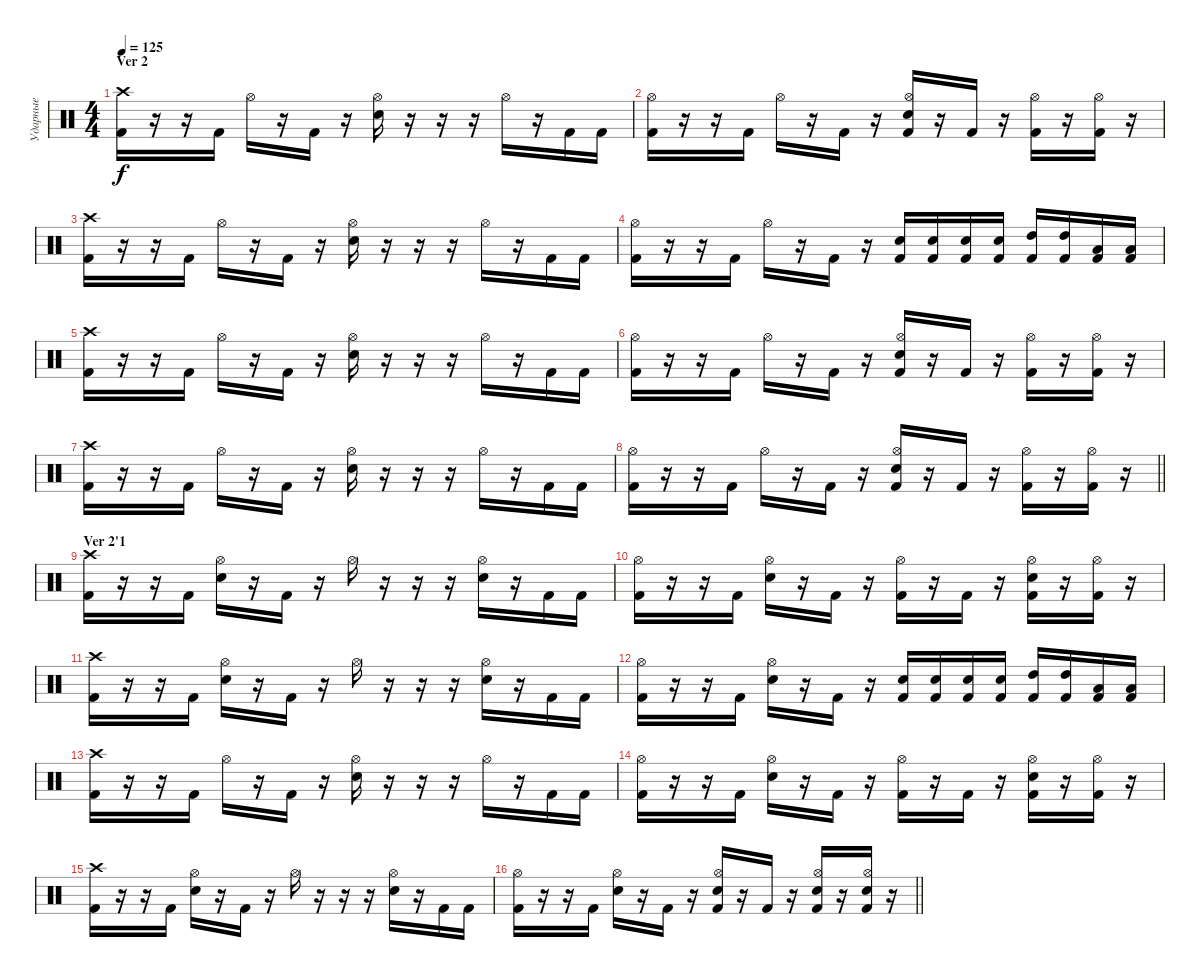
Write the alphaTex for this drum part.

\track ("Ударные" "Ударные") {instrument percussion}
\staff {score}
\articulation defaults
\ts (4 4)
\section ("" "Ver 2")
\tempo 125
\clef neutral
\ks c
("Crash high (hit)" "Kick (hit) 2").16{dy f} r.16 r.16 "Kick (hit) 2".16 "Hi-Hat (open)".16 r.16 "Kick (hit) 2".16 r.16 ("Hi-Hat (open)" "Electric Snare (hit)").16 r.16 r.16 r.16 "Hi-Hat (open)".16 r.16 "Kick (hit) 2".16 "Kick (hit) 2".16 |
("Hi-Hat (open)" "Kick (hit) 2").16 r.16 r.16 "Kick (hit) 2".16 "Hi-Hat (open)".16 r.16 "Kick (hit) 2".16 r.16 ("Hi-Hat (open)" "Electric Snare (hit)" "Kick (hit) 2").16 r.16 "Kick (hit) 2".16 r.16 ("Hi-Hat (open)" "Kick (hit) 2").16 r.16 ("Hi-Hat (open)" "Kick (hit) 2").16 r.16 |
("Crash high (hit)" "Kick (hit) 2").16 r.16 r.16 "Kick (hit) 2".16 "Hi-Hat (open)".16 r.16 "Kick (hit) 2".16 r.16 ("Hi-Hat (open)" "Electric Snare (hit)").16 r.16 r.16 r.16 "Hi-Hat (open)".16 r.16 "Kick (hit) 2".16 "Kick (hit) 2".16 |
("Hi-Hat (open)" "Kick (hit) 2").16 r.16 r.16 "Kick (hit) 2".16 "Hi-Hat (open)".16 r.16 "Kick (hit) 2".16 r.16 ("Electric Snare (hit)" "Kick (hit) 2").16 ("Electric Snare (hit)" "Kick (hit) 2").16 ("Electric Snare (hit)" "Kick (hit) 2").16 ("Electric Snare (hit)" "Kick (hit) 2").16 ("High Tom (hit)" "Kick (hit) 2").16 ("High Tom (hit)" "Kick (hit) 2").16 ("Low Tom (hit)" "Kick (hit) 2").16 ("Low Tom (hit)" "Kick (hit) 2").16 |
("Crash high (hit)" "Kick (hit) 2").16 r.16 r.16 "Kick (hit) 2".16 "Hi-Hat (open)".16 r.16 "Kick (hit) 2".16 r.16 ("Hi-Hat (open)" "Electric Snare (hit)").16 r.16 r.16 r.16 "Hi-Hat (open)".16 r.16 "Kick (hit) 2".16 "Kick (hit) 2".16 |
("Hi-Hat (open)" "Kick (hit) 2").16 r.16 r.16 "Kick (hit) 2".16 "Hi-Hat (open)".16 r.16 "Kick (hit) 2".16 r.16 ("Hi-Hat (open)" "Electric Snare (hit)" "Kick (hit) 2").16 r.16 "Kick (hit) 2".16 r.16 ("Hi-Hat (open)" "Kick (hit) 2").16 r.16 ("Hi-Hat (open)" "Kick (hit) 2").16 r.16 |
("Crash high (hit)" "Kick (hit) 2").16 r.16 r.16 "Kick (hit) 2".16 "Hi-Hat (open)".16 r.16 "Kick (hit) 2".16 r.16 ("Hi-Hat (open)" "Electric Snare (hit)").16 r.16 r.16 r.16 "Hi-Hat (open)".16 r.16 "Kick (hit) 2".16 "Kick (hit) 2".16 |
\barLineRight lightlight
("Hi-Hat (open)" "Kick (hit) 2").16 r.16 r.16 "Kick (hit) 2".16 "Hi-Hat (open)".16 r.16 "Kick (hit) 2".16 r.16 ("Hi-Hat (open)" "Electric Snare (hit)" "Kick (hit) 2").16 r.16 "Kick (hit) 2".16 r.16 ("Hi-Hat (open)" "Kick (hit) 2").16 r.16 ("Hi-Hat (open)" "Kick (hit) 2").16 r.16 |
\section ("" "Ver 2'1")
("Crash high (hit)" "Kick (hit) 2").16 r.16 r.16 "Kick (hit) 2".16 ("Hi-Hat (open)" "Electric Snare (hit)").16 r.16 "Kick (hit) 2".16 r.16 "Hi-Hat (open)".16 r.16 r.16 r.16 ("Hi-Hat (open)" "Electric Snare (hit)").16 r.16 "Kick (hit) 2".16 "Kick (hit) 2".16 |
("Hi-Hat (open)" "Kick (hit) 2").16 r.16 r.16 "Kick (hit) 2".16 ("Hi-Hat (open)" "Electric Snare (hit)").16 r.16 "Kick (hit) 2".16 r.16 ("Hi-Hat (open)" "Kick (hit) 2").16 r.16 "Kick (hit) 2".16 r.16 ("Hi-Hat (open)" "Electric Snare (hit)" "Kick (hit) 2").16 r.16 ("Hi-Hat (open)" "Kick (hit) 2").16 r.16 |
("Crash high (hit)" "Kick (hit) 2").16 r.16 r.16 "Kick (hit) 2".16 ("Hi-Hat (open)" "Electric Snare (hit)").16 r.16 "Kick (hit) 2".16 r.16 "Hi-Hat (open)".16 r.16 r.16 r.16 ("Hi-Hat (open)" "Electric Snare (hit)").16 r.16 "Kick (hit) 2".16 "Kick (hit) 2".16 |
("Hi-Hat (open)" "Kick (hit) 2").16 r.16 r.16 "Kick (hit) 2".16 ("Hi-Hat (open)" "Electric Snare (hit)").16 r.16 "Kick (hit) 2".16 r.16 ("Electric Snare (hit)" "Kick (hit) 2").16 ("Electric Snare (hit)" "Kick (hit) 2").16 ("Electric Snare (hit)" "Kick (hit) 2").16 ("Electric Snare (hit)" "Kick (hit) 2").16 ("High Tom (hit)" "Kick (hit) 2").16 ("High Tom (hit)" "Kick (hit) 2").16 ("Low Tom (hit)" "Kick (hit) 2").16 ("Low Tom (hit)" "Kick (hit) 2").16 |
("Crash high (hit)" "Kick (hit) 2").16 r.16 r.16 "Kick (hit) 2".16 "Hi-Hat (open)".16 r.16 "Kick (hit) 2".16 r.16 ("Hi-Hat (open)" "Electric Snare (hit)").16 r.16 r.16 r.16 "Hi-Hat (open)".16 r.16 "Kick (hit) 2".16 "Kick (hit) 2".16 |
("Hi-Hat (open)" "Kick (hit) 2").16 r.16 r.16 "Kick (hit) 2".16 ("Hi-Hat (open)" "Electric Snare (hit)").16 r.16 "Kick (hit) 2".16 r.16 ("Hi-Hat (open)" "Kick (hit) 2").16 r.16 "Kick (hit) 2".16 r.16 ("Hi-Hat (open)" "Electric Snare (hit)" "Kick (hit) 2").16 r.16 ("Hi-Hat (open)" "Kick (hit) 2").16 r.16 |
("Crash high (hit)" "Kick (hit) 2").16 r.16 r.16 "Kick (hit) 2".16 ("Hi-Hat (open)" "Electric Snare (hit)").16 r.16 "Kick (hit) 2".16 r.16 "Hi-Hat (open)".16 r.16 r.16 r.16 ("Hi-Hat (open)" "Electric Snare (hit)").16 r.16 "Kick (hit) 2".16 "Kick (hit) 2".16 |
\barLineRight lightlight
("Hi-Hat (open)" "Kick (hit) 2").16 r.16 r.16 "Kick (hit) 2".16 ("Hi-Hat (open)" "Electric Snare (hit)").16 r.16 "Kick (hit) 2".16 r.16 ("Hi-Hat (open)" "Electric Snare (hit)" "Kick (hit) 2").16 r.16 "Kick (hit) 2".16 r.16 ("Hi-Hat (open)" "Electric Snare (hit)" "Kick (hit) 2").16 r.16 ("Hi-Hat (open)" "Electric Snare (hit)" "Kick (hit) 2").16 r.16
